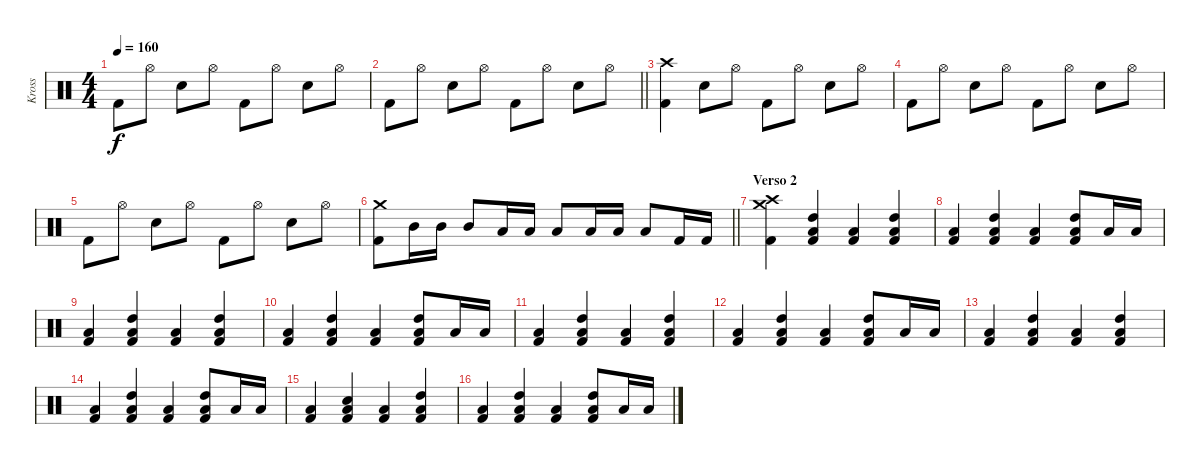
\track ("Kross" "Kross") {instrument percussion}
\staff {score}
\articulation defaults
\ts (4 4)
\tempo 160
\clef neutral
\ks c "Kick (hit) 2".8{dy f} "Hi-Hat (open)".8 "Electric Snare (hit)".8 "Hi-Hat (open)".8 "Kick (hit) 2".8 "Hi-Hat (open)".8 "Electric Snare (hit)".8 "Hi-Hat (open)".8
|
\barLineRight lightlight "Kick (hit) 2".8 "Hi-Hat (open)".8 "Electric Snare (hit)".8 "Hi-Hat (open)".8 "Kick (hit) 2".8 "Hi-Hat (open)".8 "Electric Snare (hit)".8 "Hi-Hat (open)".8
|
("Crash high (hit)" "Kick (hit) 2").4 "Electric Snare (hit)".8 "Hi-Hat (open)".8 "Kick (hit) 2".8 "Hi-Hat (open)".8 "Electric Snare (hit)".8 "Hi-Hat (open)".8 |
"Kick (hit) 2".8 "Hi-Hat (open)".8 "Electric Snare (hit)".8 "Hi-Hat (open)".8 "Kick (hit) 2".8 "Hi-Hat (open)".8 "Electric Snare (hit)".8 "Hi-Hat (open)".8 |
"Kick (hit) 2".8 "Hi-Hat (open)".8 "Electric Snare (hit)".8 "Hi-Hat (open)".8 "Kick (hit) 2".8 "Hi-Hat (open)".8 "Electric Snare (hit)".8 "Hi-Hat (open)".8 |
\barLineRight lightlight
("Crash medium (hit)" "Kick (hit) 2").8 "Mid Tom (hit)".16 "Mid Tom (hit)".16 "Mid Tom (hit)".8 "Low Tom (hit)".16 "Low Tom (hit)".16 "Low Tom (hit)".8 "Low Floor Tom (hit)".16 "Low Floor Tom (hit)".16 "Low Floor Tom (hit)".8 "Kick (hit) 2".16 "Kick (hit) 2".16 |
\section ("" "Verso 2")
("Crash high (hit)" "Crash medium (hit)" "Kick (hit) 2").4 ("High Tom (hit)" "Low Floor Tom (hit)" "Kick (hit) 2").4 ("Low Floor Tom (hit)" "Kick (hit) 2").4 ("High Tom (hit)" "Low Floor Tom (hit)" "Kick (hit) 2").4 |
("Low Floor Tom (hit)" "Kick (hit) 2").4 ("High Tom (hit)" "Low Floor Tom (hit)" "Kick (hit) 2").4 ("Low Floor Tom (hit)" "Kick (hit) 2").4 ("High Tom (hit)" "Low Floor Tom (hit)" "Kick (hit) 2").8 "Low Floor Tom (hit)".16 "Low Floor Tom (hit)".16 |
("Low Floor Tom (hit)" "Kick (hit) 2").4 ("High Tom (hit)" "Low Floor Tom (hit)" "Kick (hit) 2").4 ("Low Floor Tom (hit)" "Kick (hit) 2").4 ("High Tom (hit)" "Low Floor Tom (hit)" "Kick (hit) 2").4 |
("Low Floor Tom (hit)" "Kick (hit) 2").4 ("High Tom (hit)" "Low Floor Tom (hit)" "Kick (hit) 2").4 ("Low Floor Tom (hit)" "Kick (hit) 2").4 ("High Tom (hit)" "Low Floor Tom (hit)" "Kick (hit) 2").8 "Low Floor Tom (hit)".16 "Low Floor Tom (hit)".16 |
("Low Floor Tom (hit)" "Kick (hit) 2").4 ("High Tom (hit)" "Low Floor Tom (hit)" "Kick (hit) 2").4 ("Low Floor Tom (hit)" "Kick (hit) 2").4 ("High Tom (hit)" "Low Floor Tom (hit)" "Kick (hit) 2").4 |
("Low Floor Tom (hit)" "Kick (hit) 2").4 ("High Tom (hit)" "Low Floor Tom (hit)" "Kick (hit) 2").4 ("Low Floor Tom (hit)" "Kick (hit) 2").4 ("High Tom (hit)" "Low Floor Tom (hit)" "Kick (hit) 2").8 "Low Floor Tom (hit)".16 "Low Floor Tom (hit)".16 |
("Low Floor Tom (hit)" "Kick (hit) 2").4 ("High Tom (hit)" "Low Floor Tom (hit)" "Kick (hit) 2").4 ("Low Floor Tom (hit)" "Kick (hit) 2").4 ("High Tom (hit)" "Low Floor Tom (hit)" "Kick (hit) 2").4 |
("Low Floor Tom (hit)" "Kick (hit) 2").4 ("High Tom (hit)" "Low Floor Tom (hit)" "Kick (hit) 2").4 ("Low Floor Tom (hit)" "Kick (hit) 2").4 ("High Tom (hit)" "Low Floor Tom (hit)" "Kick (hit) 2").8 "Low Floor Tom (hit)".16 "Low Floor Tom (hit)".16 |
("Low Floor Tom (hit)" "Kick (hit) 2").4 ("Electric Snare (hit)" "Low Floor Tom (hit)" "Kick (hit) 2").4 ("Low Floor Tom (hit)" "Kick (hit) 2").4 ("High Tom (hit)" "Low Floor Tom (hit)" "Kick (hit) 2").4 |
("Low Floor Tom (hit)" "Kick (hit) 2").4 ("High Tom (hit)" "Low Floor Tom (hit)" "Kick (hit) 2").4 ("Low Floor Tom (hit)" "Kick (hit) 2").4 ("High Tom (hit)" "Low Floor Tom (hit)" "Kick (hit) 2").8 "Low Floor Tom (hit)".16 "Low Floor Tom (hit)".16
